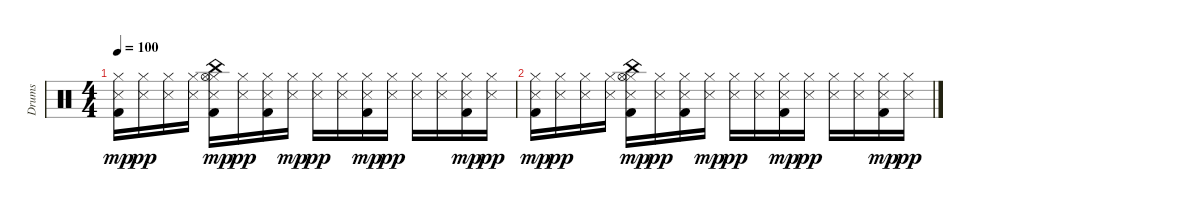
\track ("Drums" "Drums") {instrument percussion}
\staff {score}
\articulation defaults
\ts (4 4)
\tempo 100
\clef neutral
\ks c
("Hi-Hat (closed)" "Snare (side stick) 3" "Kick (hit) 2").16{dy mp} ("Hi-Hat (closed)" "Snare (side stick) 3").16{dy pp} ("Hi-Hat (closed)" "Snare (side stick) 3").16 ("Hi-Hat (closed)" "Snare (side stick) 3").16 ("Hi-Hat (closed)" "China (hit)" "Hi-Hat (open)" "Snare (side stick) 3" "Kick (hit) 2").16{dy mp} ("Hi-Hat (closed)" "Snare (side stick) 3").16{dy pp} ("Hi-Hat (closed)" "Snare (side stick) 3" "Kick (hit) 2").16 ("Hi-Hat (closed)" "Snare (side stick) 3").16{dy mp} ("Hi-Hat (closed)" "Snare (side stick) 3").16{dy pp} ("Hi-Hat (closed)" "Snare (side stick) 3").16 ("Hi-Hat (closed)" "Snare (side stick) 3" "Kick (hit) 2").16{dy mp} ("Hi-Hat (closed)" "Snare (side stick) 3").16{dy pp} ("Hi-Hat (closed)" "Snare (side stick) 3").16 ("Hi-Hat (closed)" "Snare (side stick) 3").16 ("Hi-Hat (closed)" "Snare (side stick) 3" "Kick (hit) 2").16{dy mp} ("Hi-Hat (closed)" "Snare (side stick) 3").16{dy pp} |
("Hi-Hat (closed)" "Snare (side stick) 3" "Kick (hit) 2").16{dy mp} ("Hi-Hat (closed)" "Snare (side stick) 3").16{dy pp} ("Hi-Hat (closed)" "Snare (side stick) 3").16 ("Hi-Hat (closed)" "Snare (side stick) 3").16 ("Hi-Hat (closed)" "China (hit)" "Hi-Hat (open)" "Snare (side stick) 3" "Kick (hit) 2").16{dy mp} ("Hi-Hat (closed)" "Snare (side stick) 3").16{dy pp} ("Hi-Hat (closed)" "Snare (side stick) 3" "Kick (hit) 2").16 ("Hi-Hat (closed)" "Snare (side stick) 3").16{dy mp} ("Hi-Hat (closed)" "Snare (side stick) 3").16{dy pp} ("Hi-Hat (closed)" "Snare (side stick) 3").16 ("Hi-Hat (closed)" "Snare (side stick) 3" "Kick (hit) 2").16{dy mp} ("Hi-Hat (closed)" "Snare (side stick) 3").16{dy pp} ("Hi-Hat (closed)" "Snare (side stick) 3").16 ("Hi-Hat (closed)" "Snare (side stick) 3").16 ("Hi-Hat (closed)" "Snare (side stick) 3" "Kick (hit) 2").16{dy mp} ("Hi-Hat (closed)" "Snare (side stick) 3").16{dy pp}
